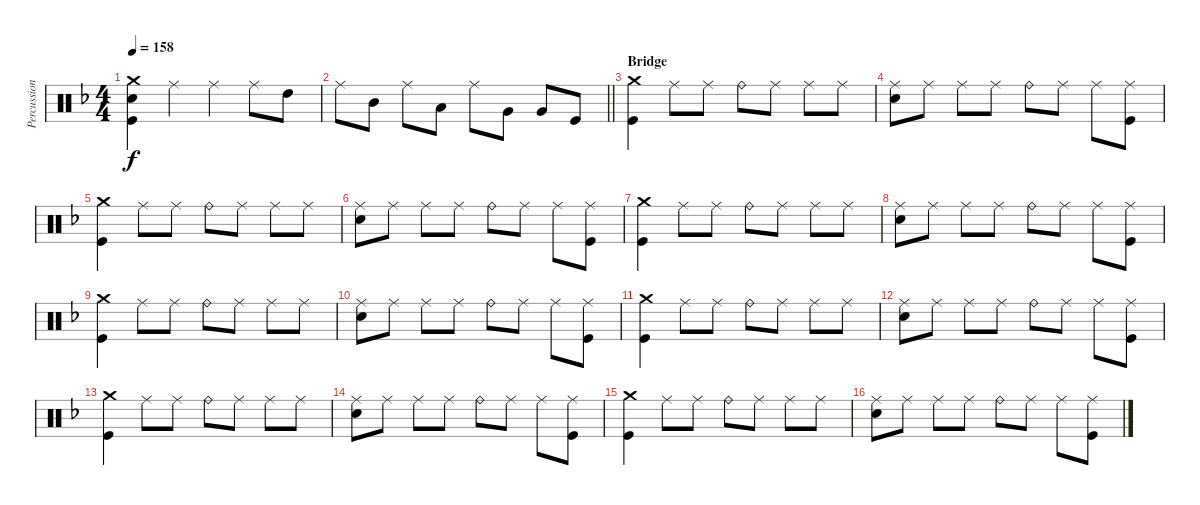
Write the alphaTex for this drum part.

\track ("Percussion" "Percussion") {instrument percussion}
\staff {score}
\articulation defaults
\ts (4 4)
\tempo 158
\clef neutral
\ks f
("Crash medium (hit)" "Electric Snare (hit)" "Kick (hit)").4{dy f} "Ride (middle)".4 "Ride (middle)".4 "Ride (middle)".8 "High Tom (hit)".8 |
\barLineRight lightlight "Ride (middle)".8 "Mid Tom (hit)".8 "Ride (middle)".8 "Low Tom (hit)".8 "Ride (middle)".8 "Very Low Tom (hit)".8 "Very Low Tom (hit)".8 "Kick (hit)".8
|
\section ("" "Bridge")
("Crash medium (hit)" "Kick (hit)").4 "Ride (middle)".8 "Ride (middle)".8 "Ride (bell)".8 "Ride (middle)".8 "Ride (middle)".8 "Ride (middle)".8 |
("Ride (middle)" "Electric Snare (hit)").8 "Ride (middle)".8 "Ride (middle)".8 "Ride (middle)".8 "Ride (bell)".8 "Ride (middle)".8 "Ride (middle)".8 ("Ride (middle)" "Kick (hit)").8 |
("Crash medium (hit)" "Kick (hit)").4 "Ride (middle)".8 "Ride (middle)".8 "Ride (bell)".8 "Ride (middle)".8 "Ride (middle)".8 "Ride (middle)".8 |
("Ride (middle)" "Electric Snare (hit)").8 "Ride (middle)".8 "Ride (middle)".8 "Ride (middle)".8 "Ride (bell)".8 "Ride (middle)".8 "Ride (middle)".8 ("Ride (middle)" "Kick (hit)").8 |
("Crash medium (hit)" "Kick (hit)").4 "Ride (middle)".8 "Ride (middle)".8 "Ride (bell)".8 "Ride (middle)".8 "Ride (middle)".8 "Ride (middle)".8 |
("Ride (middle)" "Electric Snare (hit)").8 "Ride (middle)".8 "Ride (middle)".8 "Ride (middle)".8 "Ride (bell)".8 "Ride (middle)".8 "Ride (middle)".8 ("Ride (middle)" "Kick (hit)").8 |
("Crash medium (hit)" "Kick (hit)").4 "Ride (middle)".8 "Ride (middle)".8 "Ride (bell)".8 "Ride (middle)".8 "Ride (middle)".8 "Ride (middle)".8 |
("Ride (middle)" "Electric Snare (hit)").8 "Ride (middle)".8 "Ride (middle)".8 "Ride (middle)".8 "Ride (bell)".8 "Ride (middle)".8 "Ride (middle)".8 ("Ride (middle)" "Kick (hit)").8 |
("Crash medium (hit)" "Kick (hit)").4 "Ride (middle)".8 "Ride (middle)".8 "Ride (bell)".8 "Ride (middle)".8 "Ride (middle)".8 "Ride (middle)".8 |
("Ride (middle)" "Electric Snare (hit)").8 "Ride (middle)".8 "Ride (middle)".8 "Ride (middle)".8 "Ride (bell)".8 "Ride (middle)".8 "Ride (middle)".8 ("Ride (middle)" "Kick (hit)").8 |
("Crash medium (hit)" "Kick (hit)").4 "Ride (middle)".8 "Ride (middle)".8 "Ride (bell)".8 "Ride (middle)".8 "Ride (middle)".8 "Ride (middle)".8 |
("Ride (middle)" "Electric Snare (hit)").8 "Ride (middle)".8 "Ride (middle)".8 "Ride (middle)".8 "Ride (bell)".8 "Ride (middle)".8 "Ride (middle)".8 ("Ride (middle)" "Kick (hit)").8 |
("Crash medium (hit)" "Kick (hit)").4 "Ride (middle)".8 "Ride (middle)".8 "Ride (bell)".8 "Ride (middle)".8 "Ride (middle)".8 "Ride (middle)".8 |
("Ride (middle)" "Electric Snare (hit)").8 "Ride (middle)".8 "Ride (middle)".8 "Ride (middle)".8 "Ride (bell)".8 "Ride (middle)".8 "Ride (middle)".8 ("Ride (middle)" "Kick (hit)").8
